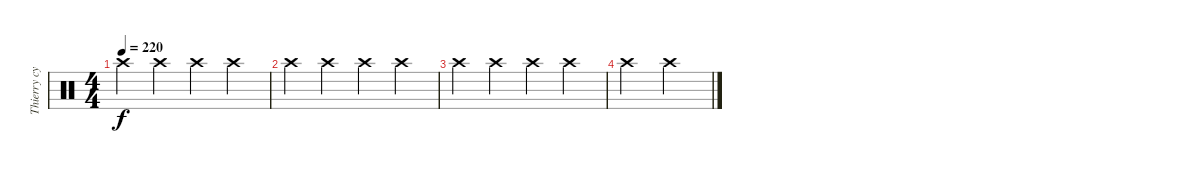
\track ("Thierry cymbales" "Thierry cy") {instrument percussion}
\staff {score}
\articulation defaults
\ts (4 4)
\tempo 220
\clef neutral
\ks c "Crash high (hit)".4{dy f} "Crash high (hit)".4 "Crash high (hit)".4 "Crash high (hit)".4
|
"Crash high (hit)".4 "Crash high (hit)".4 "Crash high (hit)".4 "Crash high (hit)".4 |
"Crash high (hit)".4 "Crash high (hit)".4 "Crash high (hit)".4 "Crash high (hit)".4 |
"Crash high (hit)".2 "Crash high (hit)".2
